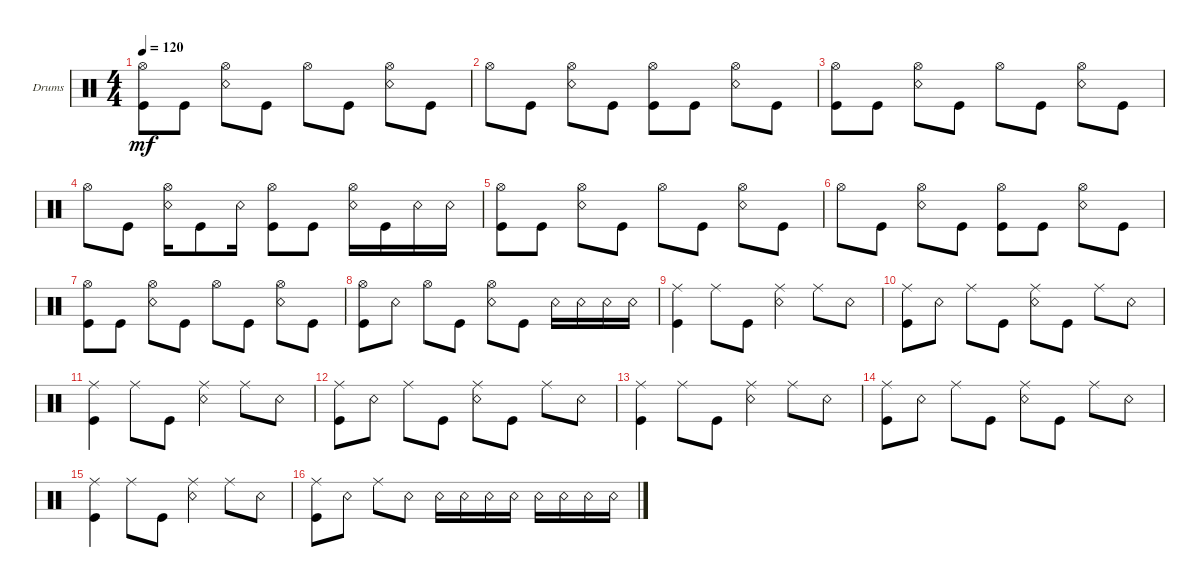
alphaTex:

\defaultSystemsLayout 4
\bracketExtendMode groupsimilarinstruments
\firstSystemTrackNameOrientation horizontal
\otherSystemsTrackNameOrientation horizontal
\track ("Roman Vorontcov" "Drums") {instrument percussion}
\staff {score}
\articulation defaults
\ts (4 4)
\tempo 120
\clef neutral
\ks c
("Kick (hit)" "Hi-Hat (open)").8{dy mf} "Kick (hit)".8 ("Snare (rim shot)" "Hi-Hat (open)").8 "Kick (hit)".8 "Hi-Hat (open)".8 "Kick (hit)".8 ("Snare (rim shot)" "Hi-Hat (open)").8 "Kick (hit)".8 |
"Hi-Hat (open)".8 "Kick (hit)".8 ("Snare (rim shot)" "Hi-Hat (open)").8 "Kick (hit)".8 ("Kick (hit)" "Hi-Hat (open)").8 "Kick (hit)".8 ("Snare (rim shot)" "Hi-Hat (open)").8 "Kick (hit)".8 |
("Kick (hit)" "Hi-Hat (open)").8 "Kick (hit)".8 ("Snare (rim shot)" "Hi-Hat (open)").8 "Kick (hit)".8 "Hi-Hat (open)".8 "Kick (hit)".8 ("Snare (rim shot)" "Hi-Hat (open)").8 "Kick (hit)".8 |
"Hi-Hat (open)".8 "Kick (hit)".8 ("Snare (rim shot)" "Hi-Hat (open)").16 "Kick (hit)".8 "Snare (rim shot)".16 ("Kick (hit)" "Hi-Hat (open)").8 "Kick (hit)".8 ("Snare (rim shot)" "Hi-Hat (open)").16 "Kick (hit)".16 "Snare (rim shot)".16 "Snare (rim shot)".16 |
("Kick (hit)" "Hi-Hat (open)").8 "Kick (hit)".8 ("Snare (rim shot)" "Hi-Hat (open)").8 "Kick (hit)".8 "Hi-Hat (open)".8 "Kick (hit)".8 ("Snare (rim shot)" "Hi-Hat (open)").8 "Kick (hit)".8 |
"Hi-Hat (open)".8 "Kick (hit)".8 ("Snare (rim shot)" "Hi-Hat (open)").8 "Kick (hit)".8 ("Kick (hit)" "Hi-Hat (open)").8 "Kick (hit)".8 ("Snare (rim shot)" "Hi-Hat (open)").8 "Kick (hit)".8 |
("Kick (hit)" "Hi-Hat (open)").8 "Kick (hit)".8 ("Snare (rim shot)" "Hi-Hat (open)").8 "Kick (hit)".8 "Hi-Hat (open)".8 "Kick (hit)".8 ("Snare (rim shot)" "Hi-Hat (open)").8 "Kick (hit)".8 |
("Hi-Hat (open)" "Kick (hit)").8 "Snare (rim shot)".8 "Hi-Hat (open)".8 "Kick (hit)".8 ("Snare (rim shot)" "Hi-Hat (open)").8 "Kick (hit)".8 "Snare (rim shot)".16 "Snare (rim shot)".16 "Snare (rim shot)".16 "Snare (rim shot)".16 |
("Kick (hit)" "Ride (middle)").4 "Ride (middle)".8 "Kick (hit)".8 ("Ride (middle)" "Snare (rim shot)").4 "Ride (middle)".8 "Snare (rim shot)".8 |
("Ride (middle)" "Kick (hit)").8 "Snare (rim shot)".8 "Ride (middle)".8 "Kick (hit)".8 ("Snare (rim shot)" "Ride (middle)").8 "Kick (hit)".8 "Ride (middle)".8 "Snare (rim shot)".8 |
("Kick (hit)" "Ride (middle)").4 "Ride (middle)".8 "Kick (hit)".8 ("Ride (middle)" "Snare (rim shot)").4 "Ride (middle)".8 "Snare (rim shot)".8 |
("Ride (middle)" "Kick (hit)").8 "Snare (rim shot)".8 "Ride (middle)".8 "Kick (hit)".8 ("Snare (rim shot)" "Ride (middle)").8 "Kick (hit)".8 "Ride (middle)".8 "Snare (rim shot)".8 |
("Kick (hit)" "Ride (middle)").4 "Ride (middle)".8 "Kick (hit)".8 ("Ride (middle)" "Snare (rim shot)").4 "Ride (middle)".8 "Snare (rim shot)".8 |
("Ride (middle)" "Kick (hit)").8 "Snare (rim shot)".8 "Ride (middle)".8 "Kick (hit)".8 ("Snare (rim shot)" "Ride (middle)").8 "Kick (hit)".8 "Ride (middle)".8 "Snare (rim shot)".8 |
("Kick (hit)" "Ride (middle)").4 "Ride (middle)".8 "Kick (hit)".8 ("Ride (middle)" "Snare (rim shot)").4 "Ride (middle)".8 "Snare (rim shot)".8 |
("Ride (middle)" "Kick (hit)").8 "Snare (rim shot)".8 "Ride (middle)".8 "Snare (rim shot)".8 "Snare (rim shot)".16 "Snare (rim shot)".16 "Snare (rim shot)".16 "Snare (rim shot)".16 "Snare (rim shot)".16 "Snare (rim shot)".16 "Snare (rim shot)".16 "Snare (rim shot)".16
